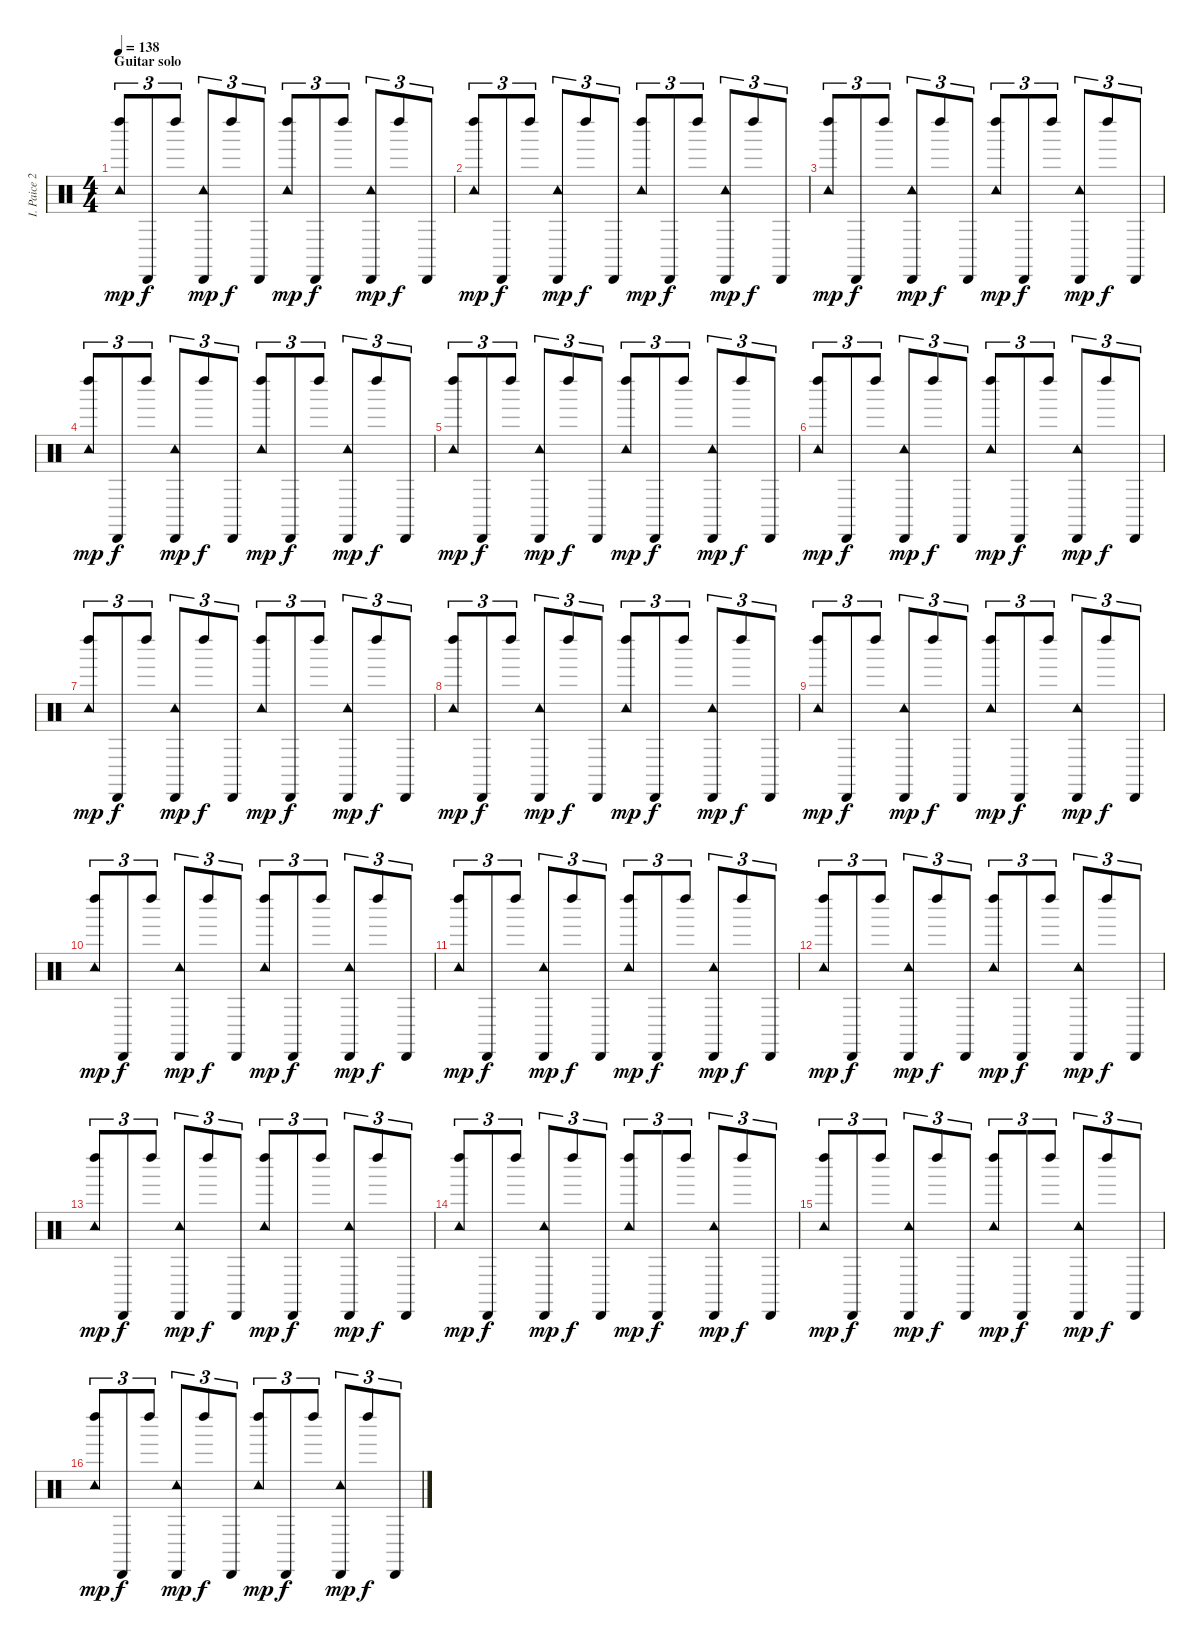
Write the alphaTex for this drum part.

\track ("I. Paice 2" "I. Paice 2") {instrument percussion}
\staff {score}
\articulation defaults
\ts (4 4)
\section ("" "Guitar solo")
\tempo 138
\clef neutral
\ks c
("Tambourine (hit)" "Left Maraca (hit)").8{tu (3 2) dy mp} "Cabasa (hit)".8{tu (3 2) dy f} "Left Maraca (hit)".8{tu (3 2)} ("Tambourine (hit)" "Cabasa (hit)").8{tu (3 2) dy mp} "Left Maraca (hit)".8{tu (3 2) dy f} "Cabasa (hit)".8{tu (3 2)} ("Tambourine (hit)" "Left Maraca (hit)").8{tu (3 2) dy mp} "Cabasa (hit)".8{tu (3 2) dy f} "Left Maraca (hit)".8{tu (3 2)} ("Tambourine (hit)" "Cabasa (hit)").8{tu (3 2) dy mp} "Left Maraca (hit)".8{tu (3 2) dy f} "Cabasa (hit)".8{tu (3 2)} |
("Tambourine (hit)" "Left Maraca (hit)").8{tu (3 2) dy mp} "Cabasa (hit)".8{tu (3 2) dy f} "Left Maraca (hit)".8{tu (3 2)} ("Tambourine (hit)" "Cabasa (hit)").8{tu (3 2) dy mp} "Left Maraca (hit)".8{tu (3 2) dy f} "Cabasa (hit)".8{tu (3 2)} ("Tambourine (hit)" "Left Maraca (hit)").8{tu (3 2) dy mp} "Cabasa (hit)".8{tu (3 2) dy f} "Left Maraca (hit)".8{tu (3 2)} ("Tambourine (hit)" "Cabasa (hit)").8{tu (3 2) dy mp} "Left Maraca (hit)".8{tu (3 2) dy f} "Cabasa (hit)".8{tu (3 2)} |
("Tambourine (hit)" "Left Maraca (hit)").8{tu (3 2) dy mp} "Cabasa (hit)".8{tu (3 2) dy f} "Left Maraca (hit)".8{tu (3 2)} ("Tambourine (hit)" "Cabasa (hit)").8{tu (3 2) dy mp} "Left Maraca (hit)".8{tu (3 2) dy f} "Cabasa (hit)".8{tu (3 2)} ("Tambourine (hit)" "Left Maraca (hit)").8{tu (3 2) dy mp} "Cabasa (hit)".8{tu (3 2) dy f} "Left Maraca (hit)".8{tu (3 2)} ("Tambourine (hit)" "Cabasa (hit)").8{tu (3 2) dy mp} "Left Maraca (hit)".8{tu (3 2) dy f} "Cabasa (hit)".8{tu (3 2)} |
("Tambourine (hit)" "Left Maraca (hit)").8{tu (3 2) dy mp} "Cabasa (hit)".8{tu (3 2) dy f} "Left Maraca (hit)".8{tu (3 2)} ("Tambourine (hit)" "Cabasa (hit)").8{tu (3 2) dy mp} "Left Maraca (hit)".8{tu (3 2) dy f} "Cabasa (hit)".8{tu (3 2)} ("Tambourine (hit)" "Left Maraca (hit)").8{tu (3 2) dy mp} "Cabasa (hit)".8{tu (3 2) dy f} "Left Maraca (hit)".8{tu (3 2)} ("Tambourine (hit)" "Cabasa (hit)").8{tu (3 2) dy mp} "Left Maraca (hit)".8{tu (3 2) dy f} "Cabasa (hit)".8{tu (3 2)} |
("Tambourine (hit)" "Left Maraca (hit)").8{tu (3 2) dy mp} "Cabasa (hit)".8{tu (3 2) dy f} "Left Maraca (hit)".8{tu (3 2)} ("Tambourine (hit)" "Cabasa (hit)").8{tu (3 2) dy mp} "Left Maraca (hit)".8{tu (3 2) dy f} "Cabasa (hit)".8{tu (3 2)} ("Tambourine (hit)" "Left Maraca (hit)").8{tu (3 2) dy mp} "Cabasa (hit)".8{tu (3 2) dy f} "Left Maraca (hit)".8{tu (3 2)} ("Tambourine (hit)" "Cabasa (hit)").8{tu (3 2) dy mp} "Left Maraca (hit)".8{tu (3 2) dy f} "Cabasa (hit)".8{tu (3 2)} |
("Tambourine (hit)" "Left Maraca (hit)").8{tu (3 2) dy mp} "Cabasa (hit)".8{tu (3 2) dy f} "Left Maraca (hit)".8{tu (3 2)} ("Tambourine (hit)" "Cabasa (hit)").8{tu (3 2) dy mp} "Left Maraca (hit)".8{tu (3 2) dy f} "Cabasa (hit)".8{tu (3 2)} ("Tambourine (hit)" "Left Maraca (hit)").8{tu (3 2) dy mp} "Cabasa (hit)".8{tu (3 2) dy f} "Left Maraca (hit)".8{tu (3 2)} ("Tambourine (hit)" "Cabasa (hit)").8{tu (3 2) dy mp} "Left Maraca (hit)".8{tu (3 2) dy f} "Cabasa (hit)".8{tu (3 2)} |
("Tambourine (hit)" "Left Maraca (hit)").8{tu (3 2) dy mp} "Cabasa (hit)".8{tu (3 2) dy f} "Left Maraca (hit)".8{tu (3 2)} ("Tambourine (hit)" "Cabasa (hit)").8{tu (3 2) dy mp} "Left Maraca (hit)".8{tu (3 2) dy f} "Cabasa (hit)".8{tu (3 2)} ("Tambourine (hit)" "Left Maraca (hit)").8{tu (3 2) dy mp} "Cabasa (hit)".8{tu (3 2) dy f} "Left Maraca (hit)".8{tu (3 2)} ("Tambourine (hit)" "Cabasa (hit)").8{tu (3 2) dy mp} "Left Maraca (hit)".8{tu (3 2) dy f} "Cabasa (hit)".8{tu (3 2)} |
("Tambourine (hit)" "Left Maraca (hit)").8{tu (3 2) dy mp} "Cabasa (hit)".8{tu (3 2) dy f} "Left Maraca (hit)".8{tu (3 2)} ("Tambourine (hit)" "Cabasa (hit)").8{tu (3 2) dy mp} "Left Maraca (hit)".8{tu (3 2) dy f} "Cabasa (hit)".8{tu (3 2)} ("Tambourine (hit)" "Left Maraca (hit)").8{tu (3 2) dy mp} "Cabasa (hit)".8{tu (3 2) dy f} "Left Maraca (hit)".8{tu (3 2)} ("Tambourine (hit)" "Cabasa (hit)").8{tu (3 2) dy mp} "Left Maraca (hit)".8{tu (3 2) dy f} "Cabasa (hit)".8{tu (3 2)} |
("Tambourine (hit)" "Left Maraca (hit)").8{tu (3 2) dy mp} "Cabasa (hit)".8{tu (3 2) dy f} "Left Maraca (hit)".8{tu (3 2)} ("Tambourine (hit)" "Cabasa (hit)").8{tu (3 2) dy mp} "Left Maraca (hit)".8{tu (3 2) dy f} "Cabasa (hit)".8{tu (3 2)} ("Tambourine (hit)" "Left Maraca (hit)").8{tu (3 2) dy mp} "Cabasa (hit)".8{tu (3 2) dy f} "Left Maraca (hit)".8{tu (3 2)} ("Tambourine (hit)" "Cabasa (hit)").8{tu (3 2) dy mp} "Left Maraca (hit)".8{tu (3 2) dy f} "Cabasa (hit)".8{tu (3 2)} |
("Tambourine (hit)" "Left Maraca (hit)").8{tu (3 2) dy mp} "Cabasa (hit)".8{tu (3 2) dy f} "Left Maraca (hit)".8{tu (3 2)} ("Tambourine (hit)" "Cabasa (hit)").8{tu (3 2) dy mp} "Left Maraca (hit)".8{tu (3 2) dy f} "Cabasa (hit)".8{tu (3 2)} ("Tambourine (hit)" "Left Maraca (hit)").8{tu (3 2) dy mp} "Cabasa (hit)".8{tu (3 2) dy f} "Left Maraca (hit)".8{tu (3 2)} ("Tambourine (hit)" "Cabasa (hit)").8{tu (3 2) dy mp} "Left Maraca (hit)".8{tu (3 2) dy f} "Cabasa (hit)".8{tu (3 2)} |
("Tambourine (hit)" "Left Maraca (hit)").8{tu (3 2) dy mp} "Cabasa (hit)".8{tu (3 2) dy f} "Left Maraca (hit)".8{tu (3 2)} ("Tambourine (hit)" "Cabasa (hit)").8{tu (3 2) dy mp} "Left Maraca (hit)".8{tu (3 2) dy f} "Cabasa (hit)".8{tu (3 2)} ("Tambourine (hit)" "Left Maraca (hit)").8{tu (3 2) dy mp} "Cabasa (hit)".8{tu (3 2) dy f} "Left Maraca (hit)".8{tu (3 2)} ("Tambourine (hit)" "Cabasa (hit)").8{tu (3 2) dy mp} "Left Maraca (hit)".8{tu (3 2) dy f} "Cabasa (hit)".8{tu (3 2)} |
("Tambourine (hit)" "Left Maraca (hit)").8{tu (3 2) dy mp} "Cabasa (hit)".8{tu (3 2) dy f} "Left Maraca (hit)".8{tu (3 2)} ("Tambourine (hit)" "Cabasa (hit)").8{tu (3 2) dy mp} "Left Maraca (hit)".8{tu (3 2) dy f} "Cabasa (hit)".8{tu (3 2)} ("Tambourine (hit)" "Left Maraca (hit)").8{tu (3 2) dy mp} "Cabasa (hit)".8{tu (3 2) dy f} "Left Maraca (hit)".8{tu (3 2)} ("Tambourine (hit)" "Cabasa (hit)").8{tu (3 2) dy mp} "Left Maraca (hit)".8{tu (3 2) dy f} "Cabasa (hit)".8{tu (3 2)} |
("Tambourine (hit)" "Left Maraca (hit)").8{tu (3 2) dy mp} "Cabasa (hit)".8{tu (3 2) dy f} "Left Maraca (hit)".8{tu (3 2)} ("Tambourine (hit)" "Cabasa (hit)").8{tu (3 2) dy mp} "Left Maraca (hit)".8{tu (3 2) dy f} "Cabasa (hit)".8{tu (3 2)} ("Tambourine (hit)" "Left Maraca (hit)").8{tu (3 2) dy mp} "Cabasa (hit)".8{tu (3 2) dy f} "Left Maraca (hit)".8{tu (3 2)} ("Tambourine (hit)" "Cabasa (hit)").8{tu (3 2) dy mp} "Left Maraca (hit)".8{tu (3 2) dy f} "Cabasa (hit)".8{tu (3 2)} |
("Tambourine (hit)" "Left Maraca (hit)").8{tu (3 2) dy mp} "Cabasa (hit)".8{tu (3 2) dy f} "Left Maraca (hit)".8{tu (3 2)} ("Tambourine (hit)" "Cabasa (hit)").8{tu (3 2) dy mp} "Left Maraca (hit)".8{tu (3 2) dy f} "Cabasa (hit)".8{tu (3 2)} ("Tambourine (hit)" "Left Maraca (hit)").8{tu (3 2) dy mp} "Cabasa (hit)".8{tu (3 2) dy f} "Left Maraca (hit)".8{tu (3 2)} ("Tambourine (hit)" "Cabasa (hit)").8{tu (3 2) dy mp} "Left Maraca (hit)".8{tu (3 2) dy f} "Cabasa (hit)".8{tu (3 2)} |
("Tambourine (hit)" "Left Maraca (hit)").8{tu (3 2) dy mp} "Cabasa (hit)".8{tu (3 2) dy f} "Left Maraca (hit)".8{tu (3 2)} ("Tambourine (hit)" "Cabasa (hit)").8{tu (3 2) dy mp} "Left Maraca (hit)".8{tu (3 2) dy f} "Cabasa (hit)".8{tu (3 2)} ("Tambourine (hit)" "Left Maraca (hit)").8{tu (3 2) dy mp} "Cabasa (hit)".8{tu (3 2) dy f} "Left Maraca (hit)".8{tu (3 2)} ("Tambourine (hit)" "Cabasa (hit)").8{tu (3 2) dy mp} "Left Maraca (hit)".8{tu (3 2) dy f} "Cabasa (hit)".8{tu (3 2)} |
("Tambourine (hit)" "Left Maraca (hit)").8{tu (3 2) dy mp} "Cabasa (hit)".8{tu (3 2) dy f} "Left Maraca (hit)".8{tu (3 2)} ("Tambourine (hit)" "Cabasa (hit)").8{tu (3 2) dy mp} "Left Maraca (hit)".8{tu (3 2) dy f} "Cabasa (hit)".8{tu (3 2)} ("Tambourine (hit)" "Left Maraca (hit)").8{tu (3 2) dy mp} "Cabasa (hit)".8{tu (3 2) dy f} "Left Maraca (hit)".8{tu (3 2)} ("Tambourine (hit)" "Cabasa (hit)").8{tu (3 2) dy mp} "Left Maraca (hit)".8{tu (3 2) dy f} "Cabasa (hit)".8{tu (3 2)}
